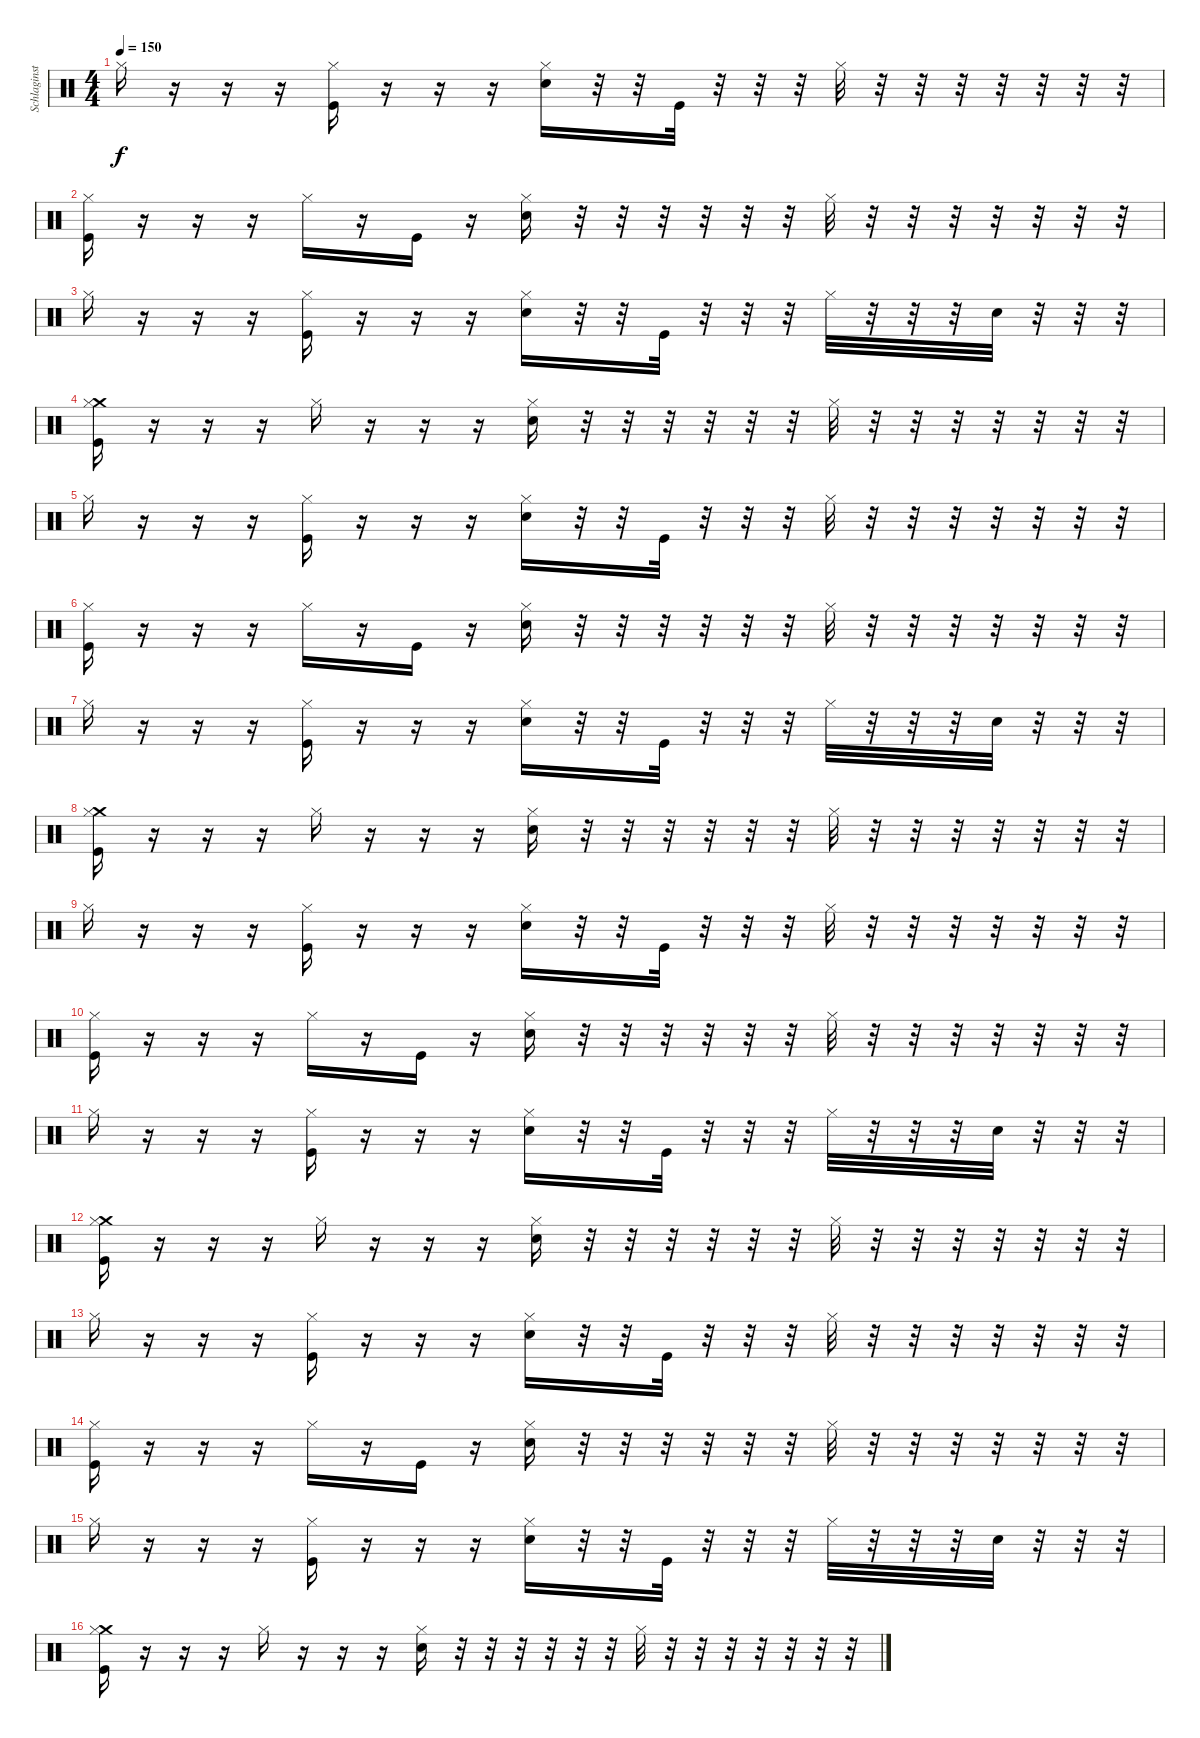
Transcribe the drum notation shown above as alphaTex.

\track ("Schlaginstrumente - Auswahl" "Schlaginst") {instrument percussion}
\staff {score}
\articulation defaults
\ts (4 4)
\tempo 150
\clef neutral
\ks c "Hi-Hat (closed)".16{dy f}
r.16 r.16 r.16 ("Kick (hit)" "Hi-Hat (closed)").16 r.16 r.16 r.16 ("Electric Snare (hit)" "Hi-Hat (closed)").16 r.32 r.32 "Kick (hit)".32 r.32 r.32 r.32 "Hi-Hat (closed)".32 r.32 r.32 r.32 r.32 r.32 r.32 r.32 |
("Kick (hit)" "Hi-Hat (closed)").16 r.16 r.16 r.16 "Hi-Hat (closed)".16 r.16 "Kick (hit)".16 r.16 ("Electric Snare (hit)" "Hi-Hat (closed)").16 r.32 r.32 r.32 r.32 r.32 r.32 "Hi-Hat (closed)".32 r.32 r.32 r.32 r.32 r.32 r.32 r.32 |
"Hi-Hat (closed)".16 r.16 r.16 r.16 ("Kick (hit)" "Hi-Hat (closed)").16 r.16 r.16 r.16 ("Electric Snare (hit)" "Hi-Hat (closed)").16 r.32 r.32 "Kick (hit)".32 r.32 r.32 r.32 "Hi-Hat (closed)".32 r.32 r.32 r.32 "Electric Snare (hit)".32 r.32 r.32 r.32 |
("Kick (hit)" "Crash medium (hit)" "Hi-Hat (closed)").16 r.16 r.16 r.16 "Hi-Hat (closed)".16 r.16 r.16 r.16 ("Electric Snare (hit)" "Hi-Hat (closed)").16 r.32 r.32 r.32 r.32 r.32 r.32 "Hi-Hat (closed)".32 r.32 r.32 r.32 r.32 r.32 r.32 r.32 |
"Hi-Hat (closed)".16 r.16 r.16 r.16 ("Kick (hit)" "Hi-Hat (closed)").16 r.16 r.16 r.16 ("Electric Snare (hit)" "Hi-Hat (closed)").16 r.32 r.32 "Kick (hit)".32 r.32 r.32 r.32 "Hi-Hat (closed)".32 r.32 r.32 r.32 r.32 r.32 r.32 r.32 |
("Kick (hit)" "Hi-Hat (closed)").16 r.16 r.16 r.16 "Hi-Hat (closed)".16 r.16 "Kick (hit)".16 r.16 ("Electric Snare (hit)" "Hi-Hat (closed)").16 r.32 r.32 r.32 r.32 r.32 r.32 "Hi-Hat (closed)".32 r.32 r.32 r.32 r.32 r.32 r.32 r.32 |
"Hi-Hat (closed)".16 r.16 r.16 r.16 ("Kick (hit)" "Hi-Hat (closed)").16 r.16 r.16 r.16 ("Electric Snare (hit)" "Hi-Hat (closed)").16 r.32 r.32 "Kick (hit)".32 r.32 r.32 r.32 "Hi-Hat (closed)".32 r.32 r.32 r.32 "Electric Snare (hit)".32 r.32 r.32 r.32 |
("Kick (hit)" "Crash medium (hit)" "Hi-Hat (closed)").16 r.16 r.16 r.16 "Hi-Hat (closed)".16 r.16 r.16 r.16 ("Electric Snare (hit)" "Hi-Hat (closed)").16 r.32 r.32 r.32 r.32 r.32 r.32 "Hi-Hat (closed)".32 r.32 r.32 r.32 r.32 r.32 r.32 r.32 |
"Hi-Hat (closed)".16 r.16 r.16 r.16 ("Kick (hit)" "Hi-Hat (closed)").16 r.16 r.16 r.16 ("Electric Snare (hit)" "Hi-Hat (closed)").16 r.32 r.32 "Kick (hit)".32 r.32 r.32 r.32 "Hi-Hat (closed)".32 r.32 r.32 r.32 r.32 r.32 r.32 r.32 |
("Kick (hit)" "Hi-Hat (closed)").16 r.16 r.16 r.16 "Hi-Hat (closed)".16 r.16 "Kick (hit)".16 r.16 ("Electric Snare (hit)" "Hi-Hat (closed)").16 r.32 r.32 r.32 r.32 r.32 r.32 "Hi-Hat (closed)".32 r.32 r.32 r.32 r.32 r.32 r.32 r.32 |
"Hi-Hat (closed)".16 r.16 r.16 r.16 ("Kick (hit)" "Hi-Hat (closed)").16 r.16 r.16 r.16 ("Electric Snare (hit)" "Hi-Hat (closed)").16 r.32 r.32 "Kick (hit)".32 r.32 r.32 r.32 "Hi-Hat (closed)".32 r.32 r.32 r.32 "Electric Snare (hit)".32 r.32 r.32 r.32 |
("Kick (hit)" "Crash medium (hit)" "Hi-Hat (closed)").16 r.16 r.16 r.16 "Hi-Hat (closed)".16 r.16 r.16 r.16 ("Electric Snare (hit)" "Hi-Hat (closed)").16 r.32 r.32 r.32 r.32 r.32 r.32 "Hi-Hat (closed)".32 r.32 r.32 r.32 r.32 r.32 r.32 r.32 |
"Hi-Hat (closed)".16 r.16 r.16 r.16 ("Kick (hit)" "Hi-Hat (closed)").16 r.16 r.16 r.16 ("Electric Snare (hit)" "Hi-Hat (closed)").16 r.32 r.32 "Kick (hit)".32 r.32 r.32 r.32 "Hi-Hat (closed)".32 r.32 r.32 r.32 r.32 r.32 r.32 r.32 |
("Kick (hit)" "Hi-Hat (closed)").16 r.16 r.16 r.16 "Hi-Hat (closed)".16 r.16 "Kick (hit)".16 r.16 ("Electric Snare (hit)" "Hi-Hat (closed)").16 r.32 r.32 r.32 r.32 r.32 r.32 "Hi-Hat (closed)".32 r.32 r.32 r.32 r.32 r.32 r.32 r.32 |
"Hi-Hat (closed)".16 r.16 r.16 r.16 ("Kick (hit)" "Hi-Hat (closed)").16 r.16 r.16 r.16 ("Electric Snare (hit)" "Hi-Hat (closed)").16 r.32 r.32 "Kick (hit)".32 r.32 r.32 r.32 "Hi-Hat (closed)".32 r.32 r.32 r.32 "Electric Snare (hit)".32 r.32 r.32 r.32 |
("Kick (hit)" "Crash medium (hit)" "Hi-Hat (closed)").16 r.16 r.16 r.16 "Hi-Hat (closed)".16 r.16 r.16 r.16 ("Electric Snare (hit)" "Hi-Hat (closed)").16 r.32 r.32 r.32 r.32 r.32 r.32 "Hi-Hat (closed)".32 r.32 r.32 r.32 r.32 r.32 r.32 r.32
